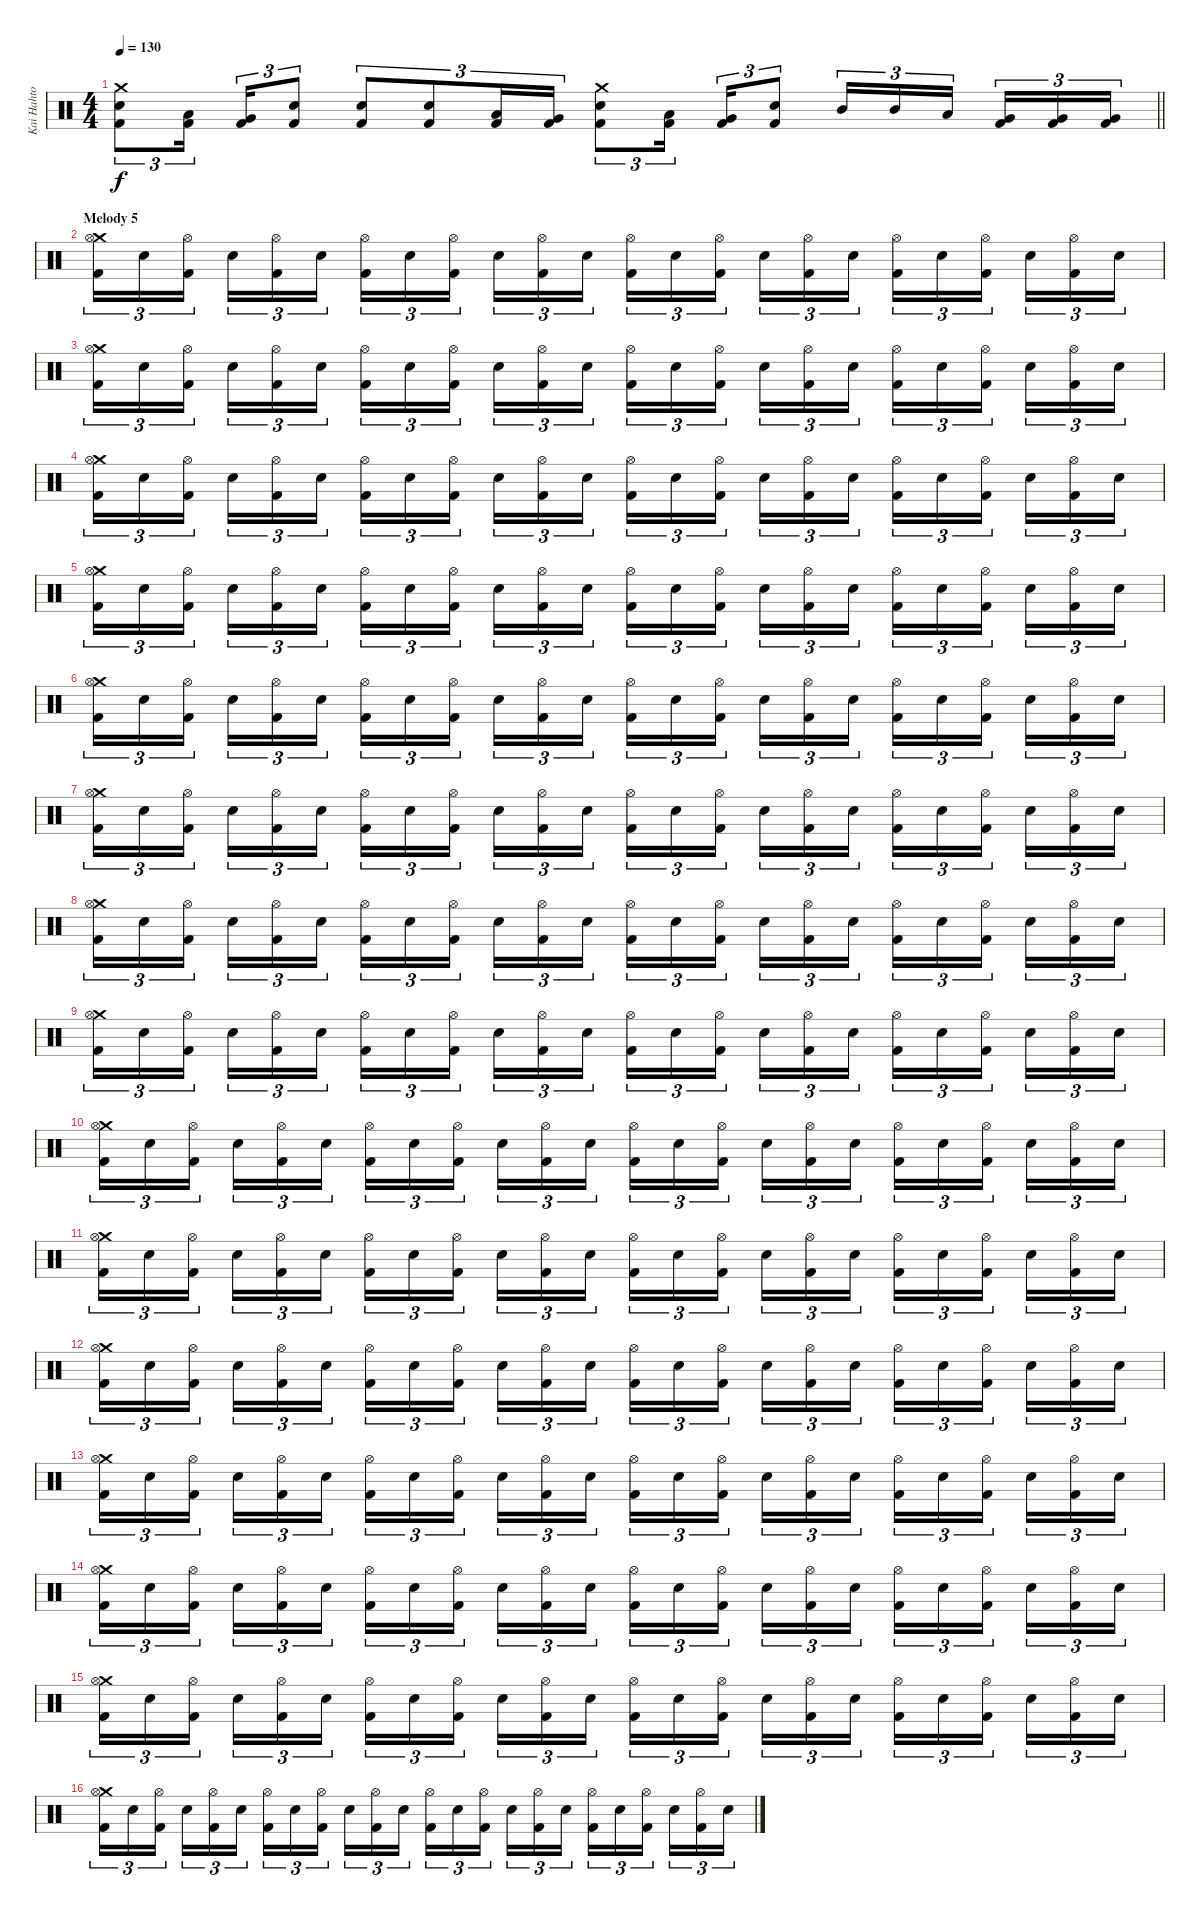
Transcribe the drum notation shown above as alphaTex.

\track ("Kai Hahto" "Kai Hahto") {instrument percussion}
\staff {score}
\articulation defaults
\ts (4 4)
\tempo 130
\clef neutral
\barLineRight lightlight
\ks c
("Crash medium (hit)" "Snare (hit) 2" "Kick (hit) 2").8{tu (3 2) dy f} ("Low Tom (hit)" "Kick (hit) 2").16{tu (3 2) beam splitsecondary} ("Very Low Tom (hit)" "Kick (hit) 2").16{tu (3 2)} ("Snare (hit) 2" "Kick (hit) 2").8{tu (3 2)} ("Snare (hit) 2" "Kick (hit) 2").8{tu (3 2)} ("Snare (hit) 2" "Kick (hit) 2").8{tu (3 2)} ("Low Tom (hit)" "Kick (hit) 2").16{tu (3 2)} ("Very Low Tom (hit)" "Kick (hit) 2").16{tu (3 2)} ("Crash medium (hit)" "Snare (hit) 2" "Kick (hit) 2").8{tu (3 2)} ("Low Tom (hit)" "Kick (hit) 2").16{tu (3 2) beam splitsecondary} ("Very Low Tom (hit)" "Kick (hit) 2").16{tu (3 2)} ("Snare (hit) 2" "Kick (hit) 2").8{tu (3 2)} "Mid Tom (hit)".16{tu (3 2)} "Mid Tom (hit)".16{tu (3 2)} "Low Tom (hit)".16{tu (3 2) beam splitsecondary} ("Very Low Tom (hit)" "Kick (hit) 2").16{tu (3 2)} ("Very Low Tom (hit)" "Kick (hit) 2").16{tu (3 2)} ("Very Low Tom (hit)" "Kick (hit) 2").16{tu (3 2)} |
\section ("" "Melody 5")
("Crash medium (hit)" "Hi-Hat (open)" "Kick (hit) 2").16{tu (3 2)} "Snare (hit) 2".16{tu (3 2)} ("Hi-Hat (open)" "Kick (hit) 2").16{tu (3 2) beam splitsecondary} "Snare (hit) 2".16{tu (3 2)} ("Hi-Hat (open)" "Kick (hit) 2").16{tu (3 2)} "Snare (hit) 2".16{tu (3 2)} ("Hi-Hat (open)" "Kick (hit) 2").16{tu (3 2)} "Snare (hit) 2".16{tu (3 2)} ("Hi-Hat (open)" "Kick (hit) 2").16{tu (3 2) beam splitsecondary} "Snare (hit) 2".16{tu (3 2)} ("Hi-Hat (open)" "Kick (hit) 2").16{tu (3 2)} "Snare (hit) 2".16{tu (3 2)} ("Hi-Hat (open)" "Kick (hit) 2").16{tu (3 2)} "Snare (hit) 2".16{tu (3 2)} ("Hi-Hat (open)" "Kick (hit) 2").16{tu (3 2) beam splitsecondary} "Snare (hit) 2".16{tu (3 2)} ("Hi-Hat (open)" "Kick (hit) 2").16{tu (3 2)} "Snare (hit) 2".16{tu (3 2)} ("Hi-Hat (open)" "Kick (hit) 2").16{tu (3 2)} "Snare (hit) 2".16{tu (3 2)} ("Hi-Hat (open)" "Kick (hit) 2").16{tu (3 2) beam splitsecondary} "Snare (hit) 2".16{tu (3 2)} ("Hi-Hat (open)" "Kick (hit) 2").16{tu (3 2)} "Snare (hit) 2".16{tu (3 2)} |
("Crash medium (hit)" "Hi-Hat (open)" "Kick (hit) 2").16{tu (3 2)} "Snare (hit) 2".16{tu (3 2)} ("Hi-Hat (open)" "Kick (hit) 2").16{tu (3 2) beam splitsecondary} "Snare (hit) 2".16{tu (3 2)} ("Hi-Hat (open)" "Kick (hit) 2").16{tu (3 2)} "Snare (hit) 2".16{tu (3 2)} ("Hi-Hat (open)" "Kick (hit) 2").16{tu (3 2)} "Snare (hit) 2".16{tu (3 2)} ("Hi-Hat (open)" "Kick (hit) 2").16{tu (3 2) beam splitsecondary} "Snare (hit) 2".16{tu (3 2)} ("Hi-Hat (open)" "Kick (hit) 2").16{tu (3 2)} "Snare (hit) 2".16{tu (3 2)} ("Hi-Hat (open)" "Kick (hit) 2").16{tu (3 2)} "Snare (hit) 2".16{tu (3 2)} ("Hi-Hat (open)" "Kick (hit) 2").16{tu (3 2) beam splitsecondary} "Snare (hit) 2".16{tu (3 2)} ("Hi-Hat (open)" "Kick (hit) 2").16{tu (3 2)} "Snare (hit) 2".16{tu (3 2)} ("Hi-Hat (open)" "Kick (hit) 2").16{tu (3 2)} "Snare (hit) 2".16{tu (3 2)} ("Hi-Hat (open)" "Kick (hit) 2").16{tu (3 2) beam splitsecondary} "Snare (hit) 2".16{tu (3 2)} ("Hi-Hat (open)" "Kick (hit) 2").16{tu (3 2)} "Snare (hit) 2".16{tu (3 2)} |
("Crash medium (hit)" "Hi-Hat (open)" "Kick (hit) 2").16{tu (3 2)} "Snare (hit) 2".16{tu (3 2)} ("Hi-Hat (open)" "Kick (hit) 2").16{tu (3 2) beam splitsecondary} "Snare (hit) 2".16{tu (3 2)} ("Hi-Hat (open)" "Kick (hit) 2").16{tu (3 2)} "Snare (hit) 2".16{tu (3 2)} ("Hi-Hat (open)" "Kick (hit) 2").16{tu (3 2)} "Snare (hit) 2".16{tu (3 2)} ("Hi-Hat (open)" "Kick (hit) 2").16{tu (3 2) beam splitsecondary} "Snare (hit) 2".16{tu (3 2)} ("Hi-Hat (open)" "Kick (hit) 2").16{tu (3 2)} "Snare (hit) 2".16{tu (3 2)} ("Hi-Hat (open)" "Kick (hit) 2").16{tu (3 2)} "Snare (hit) 2".16{tu (3 2)} ("Hi-Hat (open)" "Kick (hit) 2").16{tu (3 2) beam splitsecondary} "Snare (hit) 2".16{tu (3 2)} ("Hi-Hat (open)" "Kick (hit) 2").16{tu (3 2)} "Snare (hit) 2".16{tu (3 2)} ("Hi-Hat (open)" "Kick (hit) 2").16{tu (3 2)} "Snare (hit) 2".16{tu (3 2)} ("Hi-Hat (open)" "Kick (hit) 2").16{tu (3 2) beam splitsecondary} "Snare (hit) 2".16{tu (3 2)} ("Hi-Hat (open)" "Kick (hit) 2").16{tu (3 2)} "Snare (hit) 2".16{tu (3 2)} |
("Crash medium (hit)" "Hi-Hat (open)" "Kick (hit) 2").16{tu (3 2)} "Snare (hit) 2".16{tu (3 2)} ("Hi-Hat (open)" "Kick (hit) 2").16{tu (3 2) beam splitsecondary} "Snare (hit) 2".16{tu (3 2)} ("Hi-Hat (open)" "Kick (hit) 2").16{tu (3 2)} "Snare (hit) 2".16{tu (3 2)} ("Hi-Hat (open)" "Kick (hit) 2").16{tu (3 2)} "Snare (hit) 2".16{tu (3 2)} ("Hi-Hat (open)" "Kick (hit) 2").16{tu (3 2) beam splitsecondary} "Snare (hit) 2".16{tu (3 2)} ("Hi-Hat (open)" "Kick (hit) 2").16{tu (3 2)} "Snare (hit) 2".16{tu (3 2)} ("Hi-Hat (open)" "Kick (hit) 2").16{tu (3 2)} "Snare (hit) 2".16{tu (3 2)} ("Hi-Hat (open)" "Kick (hit) 2").16{tu (3 2) beam splitsecondary} "Snare (hit) 2".16{tu (3 2)} ("Hi-Hat (open)" "Kick (hit) 2").16{tu (3 2)} "Snare (hit) 2".16{tu (3 2)} ("Hi-Hat (open)" "Kick (hit) 2").16{tu (3 2)} "Snare (hit) 2".16{tu (3 2)} ("Hi-Hat (open)" "Kick (hit) 2").16{tu (3 2) beam splitsecondary} "Snare (hit) 2".16{tu (3 2)} ("Hi-Hat (open)" "Kick (hit) 2").16{tu (3 2)} "Snare (hit) 2".16{tu (3 2)} |
("Crash medium (hit)" "Hi-Hat (open)" "Kick (hit) 2").16{tu (3 2)} "Snare (hit) 2".16{tu (3 2)} ("Hi-Hat (open)" "Kick (hit) 2").16{tu (3 2) beam splitsecondary} "Snare (hit) 2".16{tu (3 2)} ("Hi-Hat (open)" "Kick (hit) 2").16{tu (3 2)} "Snare (hit) 2".16{tu (3 2)} ("Hi-Hat (open)" "Kick (hit) 2").16{tu (3 2)} "Snare (hit) 2".16{tu (3 2)} ("Hi-Hat (open)" "Kick (hit) 2").16{tu (3 2) beam splitsecondary} "Snare (hit) 2".16{tu (3 2)} ("Hi-Hat (open)" "Kick (hit) 2").16{tu (3 2)} "Snare (hit) 2".16{tu (3 2)} ("Hi-Hat (open)" "Kick (hit) 2").16{tu (3 2)} "Snare (hit) 2".16{tu (3 2)} ("Hi-Hat (open)" "Kick (hit) 2").16{tu (3 2) beam splitsecondary} "Snare (hit) 2".16{tu (3 2)} ("Hi-Hat (open)" "Kick (hit) 2").16{tu (3 2)} "Snare (hit) 2".16{tu (3 2)} ("Hi-Hat (open)" "Kick (hit) 2").16{tu (3 2)} "Snare (hit) 2".16{tu (3 2)} ("Hi-Hat (open)" "Kick (hit) 2").16{tu (3 2) beam splitsecondary} "Snare (hit) 2".16{tu (3 2)} ("Hi-Hat (open)" "Kick (hit) 2").16{tu (3 2)} "Snare (hit) 2".16{tu (3 2)} |
("Crash medium (hit)" "Hi-Hat (open)" "Kick (hit) 2").16{tu (3 2)} "Snare (hit) 2".16{tu (3 2)} ("Hi-Hat (open)" "Kick (hit) 2").16{tu (3 2) beam splitsecondary} "Snare (hit) 2".16{tu (3 2)} ("Hi-Hat (open)" "Kick (hit) 2").16{tu (3 2)} "Snare (hit) 2".16{tu (3 2)} ("Hi-Hat (open)" "Kick (hit) 2").16{tu (3 2)} "Snare (hit) 2".16{tu (3 2)} ("Hi-Hat (open)" "Kick (hit) 2").16{tu (3 2) beam splitsecondary} "Snare (hit) 2".16{tu (3 2)} ("Hi-Hat (open)" "Kick (hit) 2").16{tu (3 2)} "Snare (hit) 2".16{tu (3 2)} ("Hi-Hat (open)" "Kick (hit) 2").16{tu (3 2)} "Snare (hit) 2".16{tu (3 2)} ("Hi-Hat (open)" "Kick (hit) 2").16{tu (3 2) beam splitsecondary} "Snare (hit) 2".16{tu (3 2)} ("Hi-Hat (open)" "Kick (hit) 2").16{tu (3 2)} "Snare (hit) 2".16{tu (3 2)} ("Hi-Hat (open)" "Kick (hit) 2").16{tu (3 2)} "Snare (hit) 2".16{tu (3 2)} ("Hi-Hat (open)" "Kick (hit) 2").16{tu (3 2) beam splitsecondary} "Snare (hit) 2".16{tu (3 2)} ("Hi-Hat (open)" "Kick (hit) 2").16{tu (3 2)} "Snare (hit) 2".16{tu (3 2)} |
("Crash medium (hit)" "Hi-Hat (open)" "Kick (hit) 2").16{tu (3 2)} "Snare (hit) 2".16{tu (3 2)} ("Hi-Hat (open)" "Kick (hit) 2").16{tu (3 2) beam splitsecondary} "Snare (hit) 2".16{tu (3 2)} ("Hi-Hat (open)" "Kick (hit) 2").16{tu (3 2)} "Snare (hit) 2".16{tu (3 2)} ("Hi-Hat (open)" "Kick (hit) 2").16{tu (3 2)} "Snare (hit) 2".16{tu (3 2)} ("Hi-Hat (open)" "Kick (hit) 2").16{tu (3 2) beam splitsecondary} "Snare (hit) 2".16{tu (3 2)} ("Hi-Hat (open)" "Kick (hit) 2").16{tu (3 2)} "Snare (hit) 2".16{tu (3 2)} ("Hi-Hat (open)" "Kick (hit) 2").16{tu (3 2)} "Snare (hit) 2".16{tu (3 2)} ("Hi-Hat (open)" "Kick (hit) 2").16{tu (3 2) beam splitsecondary} "Snare (hit) 2".16{tu (3 2)} ("Hi-Hat (open)" "Kick (hit) 2").16{tu (3 2)} "Snare (hit) 2".16{tu (3 2)} ("Hi-Hat (open)" "Kick (hit) 2").16{tu (3 2)} "Snare (hit) 2".16{tu (3 2)} ("Hi-Hat (open)" "Kick (hit) 2").16{tu (3 2) beam splitsecondary} "Snare (hit) 2".16{tu (3 2)} ("Hi-Hat (open)" "Kick (hit) 2").16{tu (3 2)} "Snare (hit) 2".16{tu (3 2)} |
("Crash medium (hit)" "Hi-Hat (open)" "Kick (hit) 2").16{tu (3 2)} "Snare (hit) 2".16{tu (3 2)} ("Hi-Hat (open)" "Kick (hit) 2").16{tu (3 2) beam splitsecondary} "Snare (hit) 2".16{tu (3 2)} ("Hi-Hat (open)" "Kick (hit) 2").16{tu (3 2)} "Snare (hit) 2".16{tu (3 2)} ("Hi-Hat (open)" "Kick (hit) 2").16{tu (3 2)} "Snare (hit) 2".16{tu (3 2)} ("Hi-Hat (open)" "Kick (hit) 2").16{tu (3 2) beam splitsecondary} "Snare (hit) 2".16{tu (3 2)} ("Hi-Hat (open)" "Kick (hit) 2").16{tu (3 2)} "Snare (hit) 2".16{tu (3 2)} ("Hi-Hat (open)" "Kick (hit) 2").16{tu (3 2)} "Snare (hit) 2".16{tu (3 2)} ("Hi-Hat (open)" "Kick (hit) 2").16{tu (3 2) beam splitsecondary} "Snare (hit) 2".16{tu (3 2)} ("Hi-Hat (open)" "Kick (hit) 2").16{tu (3 2)} "Snare (hit) 2".16{tu (3 2)} ("Hi-Hat (open)" "Kick (hit) 2").16{tu (3 2)} "Snare (hit) 2".16{tu (3 2)} ("Hi-Hat (open)" "Kick (hit) 2").16{tu (3 2) beam splitsecondary} "Snare (hit) 2".16{tu (3 2)} ("Hi-Hat (open)" "Kick (hit) 2").16{tu (3 2)} "Snare (hit) 2".16{tu (3 2)} |
("Crash medium (hit)" "Hi-Hat (open)" "Kick (hit) 2").16{tu (3 2)} "Snare (hit) 2".16{tu (3 2)} ("Hi-Hat (open)" "Kick (hit) 2").16{tu (3 2) beam splitsecondary} "Snare (hit) 2".16{tu (3 2)} ("Hi-Hat (open)" "Kick (hit) 2").16{tu (3 2)} "Snare (hit) 2".16{tu (3 2)} ("Hi-Hat (open)" "Kick (hit) 2").16{tu (3 2)} "Snare (hit) 2".16{tu (3 2)} ("Hi-Hat (open)" "Kick (hit) 2").16{tu (3 2) beam splitsecondary} "Snare (hit) 2".16{tu (3 2)} ("Hi-Hat (open)" "Kick (hit) 2").16{tu (3 2)} "Snare (hit) 2".16{tu (3 2)} ("Hi-Hat (open)" "Kick (hit) 2").16{tu (3 2)} "Snare (hit) 2".16{tu (3 2)} ("Hi-Hat (open)" "Kick (hit) 2").16{tu (3 2) beam splitsecondary} "Snare (hit) 2".16{tu (3 2)} ("Hi-Hat (open)" "Kick (hit) 2").16{tu (3 2)} "Snare (hit) 2".16{tu (3 2)} ("Hi-Hat (open)" "Kick (hit) 2").16{tu (3 2)} "Snare (hit) 2".16{tu (3 2)} ("Hi-Hat (open)" "Kick (hit) 2").16{tu (3 2) beam splitsecondary} "Snare (hit) 2".16{tu (3 2)} ("Hi-Hat (open)" "Kick (hit) 2").16{tu (3 2)} "Snare (hit) 2".16{tu (3 2)} |
("Crash medium (hit)" "Hi-Hat (open)" "Kick (hit) 2").16{tu (3 2)} "Snare (hit) 2".16{tu (3 2)} ("Hi-Hat (open)" "Kick (hit) 2").16{tu (3 2) beam splitsecondary} "Snare (hit) 2".16{tu (3 2)} ("Hi-Hat (open)" "Kick (hit) 2").16{tu (3 2)} "Snare (hit) 2".16{tu (3 2)} ("Hi-Hat (open)" "Kick (hit) 2").16{tu (3 2)} "Snare (hit) 2".16{tu (3 2)} ("Hi-Hat (open)" "Kick (hit) 2").16{tu (3 2) beam splitsecondary} "Snare (hit) 2".16{tu (3 2)} ("Hi-Hat (open)" "Kick (hit) 2").16{tu (3 2)} "Snare (hit) 2".16{tu (3 2)} ("Hi-Hat (open)" "Kick (hit) 2").16{tu (3 2)} "Snare (hit) 2".16{tu (3 2)} ("Hi-Hat (open)" "Kick (hit) 2").16{tu (3 2) beam splitsecondary} "Snare (hit) 2".16{tu (3 2)} ("Hi-Hat (open)" "Kick (hit) 2").16{tu (3 2)} "Snare (hit) 2".16{tu (3 2)} ("Hi-Hat (open)" "Kick (hit) 2").16{tu (3 2)} "Snare (hit) 2".16{tu (3 2)} ("Hi-Hat (open)" "Kick (hit) 2").16{tu (3 2) beam splitsecondary} "Snare (hit) 2".16{tu (3 2)} ("Hi-Hat (open)" "Kick (hit) 2").16{tu (3 2)} "Snare (hit) 2".16{tu (3 2)} |
("Crash medium (hit)" "Hi-Hat (open)" "Kick (hit) 2").16{tu (3 2)} "Snare (hit) 2".16{tu (3 2)} ("Hi-Hat (open)" "Kick (hit) 2").16{tu (3 2) beam splitsecondary} "Snare (hit) 2".16{tu (3 2)} ("Hi-Hat (open)" "Kick (hit) 2").16{tu (3 2)} "Snare (hit) 2".16{tu (3 2)} ("Hi-Hat (open)" "Kick (hit) 2").16{tu (3 2)} "Snare (hit) 2".16{tu (3 2)} ("Hi-Hat (open)" "Kick (hit) 2").16{tu (3 2) beam splitsecondary} "Snare (hit) 2".16{tu (3 2)} ("Hi-Hat (open)" "Kick (hit) 2").16{tu (3 2)} "Snare (hit) 2".16{tu (3 2)} ("Hi-Hat (open)" "Kick (hit) 2").16{tu (3 2)} "Snare (hit) 2".16{tu (3 2)} ("Hi-Hat (open)" "Kick (hit) 2").16{tu (3 2) beam splitsecondary} "Snare (hit) 2".16{tu (3 2)} ("Hi-Hat (open)" "Kick (hit) 2").16{tu (3 2)} "Snare (hit) 2".16{tu (3 2)} ("Hi-Hat (open)" "Kick (hit) 2").16{tu (3 2)} "Snare (hit) 2".16{tu (3 2)} ("Hi-Hat (open)" "Kick (hit) 2").16{tu (3 2) beam splitsecondary} "Snare (hit) 2".16{tu (3 2)} ("Hi-Hat (open)" "Kick (hit) 2").16{tu (3 2)} "Snare (hit) 2".16{tu (3 2)} |
("Crash medium (hit)" "Hi-Hat (open)" "Kick (hit) 2").16{tu (3 2)} "Snare (hit) 2".16{tu (3 2)} ("Hi-Hat (open)" "Kick (hit) 2").16{tu (3 2) beam splitsecondary} "Snare (hit) 2".16{tu (3 2)} ("Hi-Hat (open)" "Kick (hit) 2").16{tu (3 2)} "Snare (hit) 2".16{tu (3 2)} ("Hi-Hat (open)" "Kick (hit) 2").16{tu (3 2)} "Snare (hit) 2".16{tu (3 2)} ("Hi-Hat (open)" "Kick (hit) 2").16{tu (3 2) beam splitsecondary} "Snare (hit) 2".16{tu (3 2)} ("Hi-Hat (open)" "Kick (hit) 2").16{tu (3 2)} "Snare (hit) 2".16{tu (3 2)} ("Hi-Hat (open)" "Kick (hit) 2").16{tu (3 2)} "Snare (hit) 2".16{tu (3 2)} ("Hi-Hat (open)" "Kick (hit) 2").16{tu (3 2) beam splitsecondary} "Snare (hit) 2".16{tu (3 2)} ("Hi-Hat (open)" "Kick (hit) 2").16{tu (3 2)} "Snare (hit) 2".16{tu (3 2)} ("Hi-Hat (open)" "Kick (hit) 2").16{tu (3 2)} "Snare (hit) 2".16{tu (3 2)} ("Hi-Hat (open)" "Kick (hit) 2").16{tu (3 2) beam splitsecondary} "Snare (hit) 2".16{tu (3 2)} ("Hi-Hat (open)" "Kick (hit) 2").16{tu (3 2)} "Snare (hit) 2".16{tu (3 2)} |
("Crash medium (hit)" "Hi-Hat (open)" "Kick (hit) 2").16{tu (3 2)} "Snare (hit) 2".16{tu (3 2)} ("Hi-Hat (open)" "Kick (hit) 2").16{tu (3 2) beam splitsecondary} "Snare (hit) 2".16{tu (3 2)} ("Hi-Hat (open)" "Kick (hit) 2").16{tu (3 2)} "Snare (hit) 2".16{tu (3 2)} ("Hi-Hat (open)" "Kick (hit) 2").16{tu (3 2)} "Snare (hit) 2".16{tu (3 2)} ("Hi-Hat (open)" "Kick (hit) 2").16{tu (3 2) beam splitsecondary} "Snare (hit) 2".16{tu (3 2)} ("Hi-Hat (open)" "Kick (hit) 2").16{tu (3 2)} "Snare (hit) 2".16{tu (3 2)} ("Hi-Hat (open)" "Kick (hit) 2").16{tu (3 2)} "Snare (hit) 2".16{tu (3 2)} ("Hi-Hat (open)" "Kick (hit) 2").16{tu (3 2) beam splitsecondary} "Snare (hit) 2".16{tu (3 2)} ("Hi-Hat (open)" "Kick (hit) 2").16{tu (3 2)} "Snare (hit) 2".16{tu (3 2)} ("Hi-Hat (open)" "Kick (hit) 2").16{tu (3 2)} "Snare (hit) 2".16{tu (3 2)} ("Hi-Hat (open)" "Kick (hit) 2").16{tu (3 2) beam splitsecondary} "Snare (hit) 2".16{tu (3 2)} ("Hi-Hat (open)" "Kick (hit) 2").16{tu (3 2)} "Snare (hit) 2".16{tu (3 2)} |
("Crash medium (hit)" "Hi-Hat (open)" "Kick (hit) 2").16{tu (3 2)} "Snare (hit) 2".16{tu (3 2)} ("Hi-Hat (open)" "Kick (hit) 2").16{tu (3 2) beam splitsecondary} "Snare (hit) 2".16{tu (3 2)} ("Hi-Hat (open)" "Kick (hit) 2").16{tu (3 2)} "Snare (hit) 2".16{tu (3 2)} ("Hi-Hat (open)" "Kick (hit) 2").16{tu (3 2)} "Snare (hit) 2".16{tu (3 2)} ("Hi-Hat (open)" "Kick (hit) 2").16{tu (3 2) beam splitsecondary} "Snare (hit) 2".16{tu (3 2)} ("Hi-Hat (open)" "Kick (hit) 2").16{tu (3 2)} "Snare (hit) 2".16{tu (3 2)} ("Hi-Hat (open)" "Kick (hit) 2").16{tu (3 2)} "Snare (hit) 2".16{tu (3 2)} ("Hi-Hat (open)" "Kick (hit) 2").16{tu (3 2) beam splitsecondary} "Snare (hit) 2".16{tu (3 2)} ("Hi-Hat (open)" "Kick (hit) 2").16{tu (3 2)} "Snare (hit) 2".16{tu (3 2)} ("Hi-Hat (open)" "Kick (hit) 2").16{tu (3 2)} "Snare (hit) 2".16{tu (3 2)} ("Hi-Hat (open)" "Kick (hit) 2").16{tu (3 2) beam splitsecondary} "Snare (hit) 2".16{tu (3 2)} ("Hi-Hat (open)" "Kick (hit) 2").16{tu (3 2)} "Snare (hit) 2".16{tu (3 2)} |
("Crash medium (hit)" "Hi-Hat (open)" "Kick (hit) 2").16{tu (3 2)} "Snare (hit) 2".16{tu (3 2)} ("Hi-Hat (open)" "Kick (hit) 2").16{tu (3 2) beam splitsecondary} "Snare (hit) 2".16{tu (3 2)} ("Hi-Hat (open)" "Kick (hit) 2").16{tu (3 2)} "Snare (hit) 2".16{tu (3 2)} ("Hi-Hat (open)" "Kick (hit) 2").16{tu (3 2)} "Snare (hit) 2".16{tu (3 2)} ("Hi-Hat (open)" "Kick (hit) 2").16{tu (3 2) beam splitsecondary} "Snare (hit) 2".16{tu (3 2)} ("Hi-Hat (open)" "Kick (hit) 2").16{tu (3 2)} "Snare (hit) 2".16{tu (3 2)} ("Hi-Hat (open)" "Kick (hit) 2").16{tu (3 2)} "Snare (hit) 2".16{tu (3 2)} ("Hi-Hat (open)" "Kick (hit) 2").16{tu (3 2) beam splitsecondary} "Snare (hit) 2".16{tu (3 2)} ("Hi-Hat (open)" "Kick (hit) 2").16{tu (3 2)} "Snare (hit) 2".16{tu (3 2)} ("Hi-Hat (open)" "Kick (hit) 2").16{tu (3 2)} "Snare (hit) 2".16{tu (3 2)} ("Hi-Hat (open)" "Kick (hit) 2").16{tu (3 2) beam splitsecondary} "Snare (hit) 2".16{tu (3 2)} ("Hi-Hat (open)" "Kick (hit) 2").16{tu (3 2)} "Snare (hit) 2".16{tu (3 2)}
